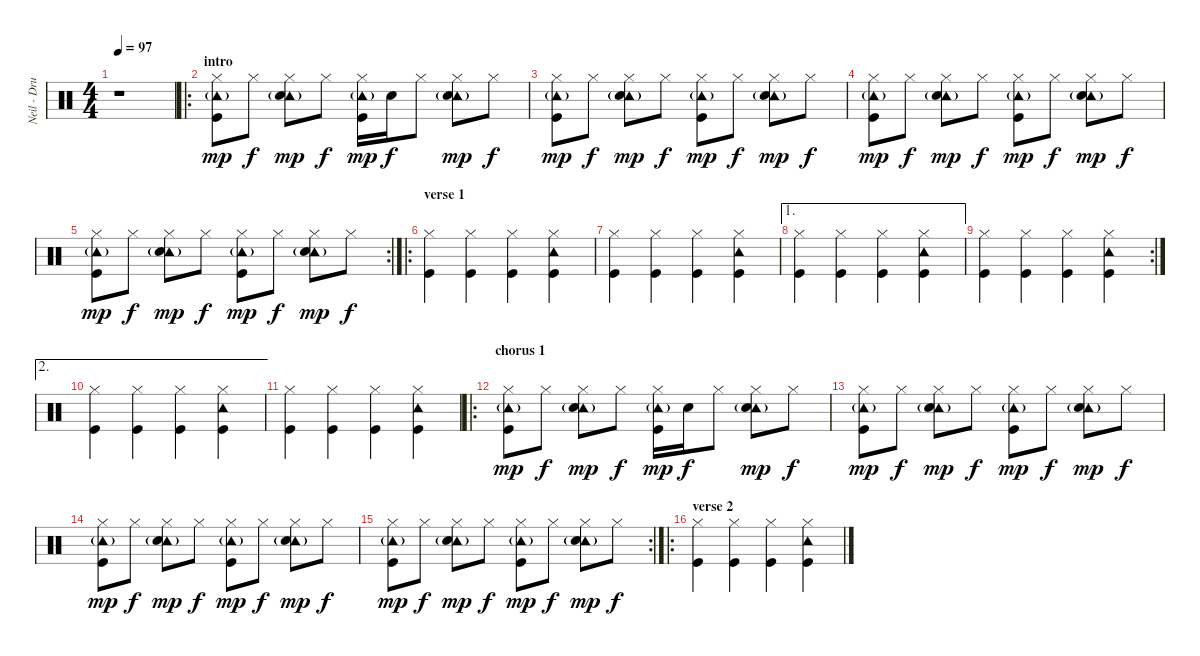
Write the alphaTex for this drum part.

\track ("Neil - Drums" "Neil - Dru") {instrument percussion}
\staff {score}
\articulation defaults
\ts (4 4)
\tempo 97
\clef neutral
\ks c
r.1{dy mp} |
\ro
\section ("" "intro")
("Hi-Hat (closed)" "Tambourine (hit)"{g} "Kick (hit)").8 "Hi-Hat (closed)".8{dy f} ("Hi-Hat (closed)" "Tambourine (hit)"{g} "Electric Snare (hit)").8{dy mp} "Hi-Hat (closed)".8{dy f} ("Hi-Hat (closed)" "Tambourine (hit)"{g} "Kick (hit)").16{dy mp} "Electric Snare (hit)".16{dy f} "Hi-Hat (closed)".8 ("Hi-Hat (closed)" "Tambourine (hit)"{g} "Electric Snare (hit)").8{dy mp} "Hi-Hat (closed)".8{dy f} |
("Hi-Hat (closed)" "Tambourine (hit)"{g} "Kick (hit)").8{dy mp} "Hi-Hat (closed)".8{dy f} ("Hi-Hat (closed)" "Tambourine (hit)"{g} "Electric Snare (hit)").8{dy mp} "Hi-Hat (closed)".8{dy f} ("Hi-Hat (closed)" "Tambourine (hit)"{g} "Kick (hit)").8{dy mp} "Hi-Hat (closed)".8{dy f} ("Hi-Hat (closed)" "Tambourine (hit)"{g} "Electric Snare (hit)").8{dy mp} "Hi-Hat (closed)".8{dy f} |
("Hi-Hat (closed)" "Tambourine (hit)"{g} "Kick (hit)").8{dy mp} "Hi-Hat (closed)".8{dy f} ("Hi-Hat (closed)" "Tambourine (hit)"{g} "Electric Snare (hit)").8{dy mp} "Hi-Hat (closed)".8{dy f} ("Hi-Hat (closed)" "Tambourine (hit)"{g} "Kick (hit)").8{dy mp} "Hi-Hat (closed)".8{dy f} ("Hi-Hat (closed)" "Tambourine (hit)"{g} "Electric Snare (hit)").8{dy mp} "Hi-Hat (closed)".8{dy f} |
\rc 2
("Hi-Hat (closed)" "Tambourine (hit)"{g} "Kick (hit)").8{dy mp} "Hi-Hat (closed)".8{dy f} ("Hi-Hat (closed)" "Tambourine (hit)"{g} "Electric Snare (hit)").8{dy mp} "Hi-Hat (closed)".8{dy f} ("Hi-Hat (closed)" "Tambourine (hit)"{g} "Kick (hit)").8{dy mp} "Hi-Hat (closed)".8{dy f} ("Hi-Hat (closed)" "Tambourine (hit)"{g} "Electric Snare (hit)").8{dy mp} "Hi-Hat (closed)".8{dy f} |
\ro
\section ("" "verse 1")
("Hi-Hat (closed)" "Kick (hit)").4 ("Hi-Hat (closed)" "Kick (hit)").4 ("Hi-Hat (closed)" "Kick (hit)").4 ("Hi-Hat (closed)" "Tambourine (hit)" "Kick (hit)").4 |
("Hi-Hat (closed)" "Kick (hit)").4 ("Hi-Hat (closed)" "Kick (hit)").4 ("Hi-Hat (closed)" "Kick (hit)").4 ("Hi-Hat (closed)" "Tambourine (hit)" "Kick (hit)").4 |
\ae 1
("Hi-Hat (closed)" "Kick (hit)").4 ("Hi-Hat (closed)" "Kick (hit)").4 ("Hi-Hat (closed)" "Kick (hit)").4 ("Hi-Hat (closed)" "Tambourine (hit)" "Kick (hit)").4 |
\rc 2
("Hi-Hat (closed)" "Kick (hit)").4 ("Hi-Hat (closed)" "Kick (hit)").4 ("Hi-Hat (closed)" "Kick (hit)").4 ("Hi-Hat (closed)" "Tambourine (hit)" "Kick (hit)").4 |
\ae 2
("Hi-Hat (closed)" "Kick (hit)").4 ("Hi-Hat (closed)" "Kick (hit)").4 ("Hi-Hat (closed)" "Kick (hit)").4 ("Hi-Hat (closed)" "Tambourine (hit)" "Kick (hit)").4 |
("Hi-Hat (closed)" "Kick (hit)").4 ("Hi-Hat (closed)" "Kick (hit)").4 ("Hi-Hat (closed)" "Kick (hit)").4 ("Hi-Hat (closed)" "Tambourine (hit)" "Kick (hit)").4 |
\ro
\section ("" "chorus 1")
("Hi-Hat (closed)" "Tambourine (hit)"{g} "Kick (hit)").8{dy mp} "Hi-Hat (closed)".8{dy f} ("Hi-Hat (closed)" "Tambourine (hit)"{g} "Electric Snare (hit)").8{dy mp} "Hi-Hat (closed)".8{dy f} ("Hi-Hat (closed)" "Tambourine (hit)"{g} "Kick (hit)").16{dy mp} "Electric Snare (hit)".16{dy f} "Hi-Hat (closed)".8 ("Hi-Hat (closed)" "Tambourine (hit)"{g} "Electric Snare (hit)").8{dy mp} "Hi-Hat (closed)".8{dy f} |
("Hi-Hat (closed)" "Tambourine (hit)"{g} "Kick (hit)").8{dy mp} "Hi-Hat (closed)".8{dy f} ("Hi-Hat (closed)" "Tambourine (hit)"{g} "Electric Snare (hit)").8{dy mp} "Hi-Hat (closed)".8{dy f} ("Hi-Hat (closed)" "Tambourine (hit)"{g} "Kick (hit)").8{dy mp} "Hi-Hat (closed)".8{dy f} ("Hi-Hat (closed)" "Tambourine (hit)"{g} "Electric Snare (hit)").8{dy mp} "Hi-Hat (closed)".8{dy f} |
("Hi-Hat (closed)" "Tambourine (hit)"{g} "Kick (hit)").8{dy mp} "Hi-Hat (closed)".8{dy f} ("Hi-Hat (closed)" "Tambourine (hit)"{g} "Electric Snare (hit)").8{dy mp} "Hi-Hat (closed)".8{dy f} ("Hi-Hat (closed)" "Tambourine (hit)"{g} "Kick (hit)").8{dy mp} "Hi-Hat (closed)".8{dy f} ("Hi-Hat (closed)" "Tambourine (hit)"{g} "Electric Snare (hit)").8{dy mp} "Hi-Hat (closed)".8{dy f} |
\rc 2
("Hi-Hat (closed)" "Tambourine (hit)"{g} "Kick (hit)").8{dy mp} "Hi-Hat (closed)".8{dy f} ("Hi-Hat (closed)" "Tambourine (hit)"{g} "Electric Snare (hit)").8{dy mp} "Hi-Hat (closed)".8{dy f} ("Hi-Hat (closed)" "Tambourine (hit)"{g} "Kick (hit)").8{dy mp} "Hi-Hat (closed)".8{dy f} ("Hi-Hat (closed)" "Tambourine (hit)"{g} "Electric Snare (hit)").8{dy mp} "Hi-Hat (closed)".8{dy f} |
\ro
\section ("" "verse 2")
("Hi-Hat (closed)" "Kick (hit)").4 ("Hi-Hat (closed)" "Kick (hit)").4 ("Hi-Hat (closed)" "Kick (hit)").4 ("Hi-Hat (closed)" "Tambourine (hit)" "Kick (hit)").4
